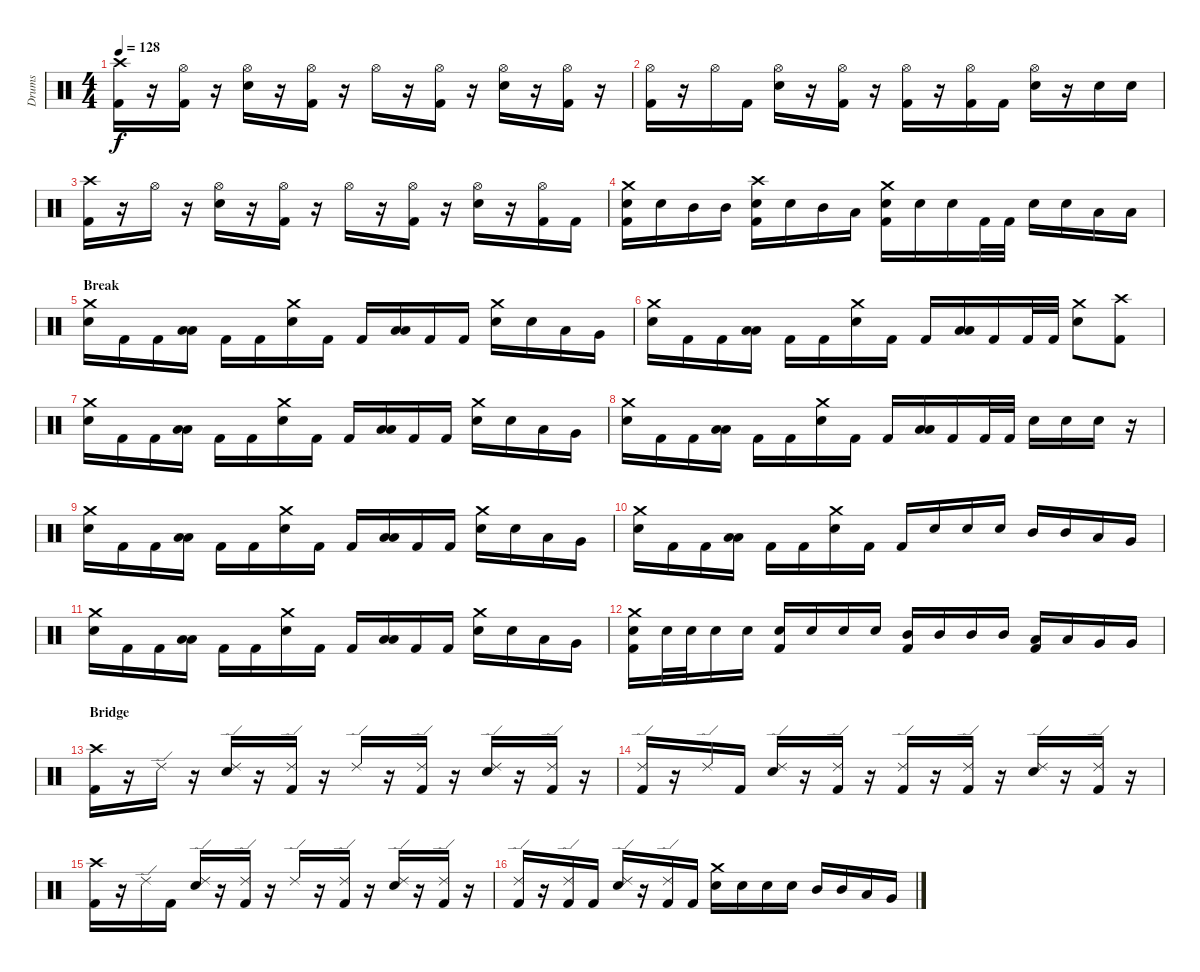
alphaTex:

\track ("Drums" "Drums") {instrument percussion}
\staff {score}
\articulation defaults
\ts (4 4)
\tempo 128
\clef neutral
\ks c
("Crash high (hit)" "Kick (hit) 2").16{dy f} r.16 ("Hi-Hat (open)" "Kick (hit) 2").16 r.16 ("Hi-Hat (open)" "Snare (hit) 2").16 r.16 ("Hi-Hat (open)" "Kick (hit) 2").16 r.16 "Hi-Hat (open)".16 r.16 ("Hi-Hat (open)" "Kick (hit) 2").16 r.16 ("Hi-Hat (open)" "Snare (hit) 2").16 r.16 ("Hi-Hat (open)" "Kick (hit) 2").16 r.16 |
("Hi-Hat (open)" "Kick (hit) 2").16 r.16 "Hi-Hat (open)".16 "Kick (hit) 2".16 ("Hi-Hat (open)" "Snare (hit) 2").16 r.16 ("Hi-Hat (open)" "Kick (hit) 2").16 r.16 ("Hi-Hat (open)" "Kick (hit) 2").16 r.16 ("Hi-Hat (open)" "Kick (hit) 2").16 "Kick (hit) 2".16 ("Hi-Hat (open)" "Snare (hit) 2").16 r.16 "Snare (hit) 2".16 "Snare (hit) 2".16 |
("Crash high (hit)" "Kick (hit) 2").16 r.16 "Hi-Hat (open)".16 r.16 ("Hi-Hat (open)" "Snare (hit) 2").16 r.16 ("Hi-Hat (open)" "Kick (hit) 2").16 r.16 "Hi-Hat (open)".16 r.16 ("Hi-Hat (open)" "Kick (hit) 2").16 r.16 ("Hi-Hat (open)" "Snare (hit) 2").16 r.16 ("Hi-Hat (open)" "Kick (hit) 2").16 "Kick (hit) 2".16 |
("Crash medium (hit)" "Snare (hit) 2" "Kick (hit) 2").16 "Snare (hit) 2".16 "Mid Tom (hit)".16 "Mid Tom (hit)".16 ("Crash high (hit)" "Snare (hit) 2" "Kick (hit) 2").16 "Snare (hit) 2".16 "Mid Tom (hit)".16 "Low Tom (hit)".16 ("Crash medium (hit)" "Snare (hit) 2" "Kick (hit) 2").16 "Snare (hit) 2".16 "Snare (hit) 2".16 "Kick (hit) 2".32 "Kick (hit) 2".32 "Snare (hit) 2".16 "Snare (hit) 2".16 "Low Tom (hit)".16 "Low Tom (hit)".16 |
\section ("" "Break")
("Crash medium (hit)" "Snare (hit) 2").16 "Kick (hit) 2".16 "Kick (hit) 2".16 ("Low Tom (hit)" "Low Tom (hit)").16{bd 240} "Kick (hit) 2".16 "Kick (hit) 2".16 ("Crash medium (hit)" "Snare (hit) 2").16 "Kick (hit) 2".16 "Kick (hit) 2".16 ("Low Tom (hit)" "Low Tom (hit)").16{bd 240} "Kick (hit) 2".16 "Kick (hit) 2".16 ("Crash medium (hit)" "Snare (hit) 2").16 "Snare (hit) 2".16 "Low Tom (hit)".16 "Very Low Tom (hit)".16 |
("Crash medium (hit)" "Snare (hit) 2").16 "Kick (hit) 2".16 "Kick (hit) 2".16 ("Low Tom (hit)" "Low Tom (hit)").16{bd 240} "Kick (hit) 2".16 "Kick (hit) 2".16 ("Crash medium (hit)" "Snare (hit) 2").16 "Kick (hit) 2".16 "Kick (hit) 2".16 ("Low Tom (hit)" "Low Tom (hit)").16{bd 240} "Kick (hit) 2".16 "Kick (hit) 2".32 "Kick (hit) 2".32 ("Crash medium (hit)" "Snare (hit) 2").8 ("Crash high (hit)" "Kick (hit) 2").8 |
("Crash medium (hit)" "Snare (hit) 2").16 "Kick (hit) 2".16 "Kick (hit) 2".16 ("Low Tom (hit)" "Low Tom (hit)").16{bd 240} "Kick (hit) 2".16 "Kick (hit) 2".16 ("Crash medium (hit)" "Snare (hit) 2").16 "Kick (hit) 2".16 "Kick (hit) 2".16 ("Low Tom (hit)" "Low Tom (hit)").16{bd 240} "Kick (hit) 2".16 "Kick (hit) 2".16 ("Crash medium (hit)" "Snare (hit) 2").16 "Snare (hit) 2".16 "Low Tom (hit)".16 "Very Low Tom (hit)".16 |
("Crash medium (hit)" "Snare (hit) 2").16 "Kick (hit) 2".16 "Kick (hit) 2".16 ("Low Tom (hit)" "Low Tom (hit)").16{bd 240} "Kick (hit) 2".16 "Kick (hit) 2".16 ("Crash medium (hit)" "Snare (hit) 2").16 "Kick (hit) 2".16 "Kick (hit) 2".16 ("Low Tom (hit)" "Low Tom (hit)").16{bd 240} "Kick (hit) 2".16 "Kick (hit) 2".32 "Kick (hit) 2".32 "Snare (hit) 2".16 "Snare (hit) 2".16 "Snare (hit) 2".16 r.16 |
("Crash medium (hit)" "Snare (hit) 2").16 "Kick (hit) 2".16 "Kick (hit) 2".16 ("Low Tom (hit)" "Low Tom (hit)").16{bd 240} "Kick (hit) 2".16 "Kick (hit) 2".16 ("Crash medium (hit)" "Snare (hit) 2").16 "Kick (hit) 2".16 "Kick (hit) 2".16 ("Low Tom (hit)" "Low Tom (hit)").16{bd 240} "Kick (hit) 2".16 "Kick (hit) 2".16 ("Crash medium (hit)" "Snare (hit) 2").16 "Snare (hit) 2".16 "Low Tom (hit)".16 "Very Low Tom (hit)".16 |
("Crash medium (hit)" "Snare (hit) 2").16 "Kick (hit) 2".16 "Kick (hit) 2".16 ("Low Tom (hit)" "Low Tom (hit)").16{bd 240} "Kick (hit) 2".16 "Kick (hit) 2".16 ("Crash medium (hit)" "Snare (hit) 2").16 "Kick (hit) 2".16 "Kick (hit) 2".16 "Snare (hit) 2".16 "Snare (hit) 2".16 "Snare (hit) 2".16 "Mid Tom (hit)".16 "Mid Tom (hit)".16 "Low Tom (hit)".16 "Very Low Tom (hit)".16 |
("Crash medium (hit)" "Snare (hit) 2").16 "Kick (hit) 2".16 "Kick (hit) 2".16 ("Low Tom (hit)" "Low Tom (hit)").16{bd 240} "Kick (hit) 2".16 "Kick (hit) 2".16 ("Crash medium (hit)" "Snare (hit) 2").16 "Kick (hit) 2".16 "Kick (hit) 2".16 ("Low Tom (hit)" "Low Tom (hit)").16{bd 240} "Kick (hit) 2".16 "Kick (hit) 2".16 ("Crash medium (hit)" "Snare (hit) 2").16 "Snare (hit) 2".16 "Low Tom (hit)".16 "Very Low Tom (hit)".16 |
("Crash medium (hit)" "Snare (hit) 2" "Kick (hit) 2").16 "Snare (hit) 2".32 "Snare (hit) 2".32 "Snare (hit) 2".16 "Snare (hit) 2".16 ("Snare (hit) 2" "Kick (hit) 2").16 "Snare (hit) 2".16 "Snare (hit) 2".16 "Snare (hit) 2".16 ("Mid Tom (hit)" "Kick (hit) 2").16 "Mid Tom (hit)".16 "Mid Tom (hit)".16 "Mid Tom (hit)".16 ("Low Tom (hit)" "Kick (hit) 2").16 "Low Tom (hit)".16 "Very Low Tom (hit)".16 "Very Low Tom (hit)".16 |
\section ("" "Bridge")
("Crash high (hit)" "Kick (hit) 2").16 r.16 "Ride (edge) 2".16 r.16 ("Ride (edge) 2" "Snare (hit) 2").16 r.16 ("Ride (edge) 2" "Kick (hit) 2").16 r.16 "Ride (edge) 2".16 r.16 ("Ride (edge) 2" "Kick (hit) 2").16 r.16 ("Ride (edge) 2" "Snare (hit) 2").16 r.16 ("Ride (edge) 2" "Kick (hit) 2").16 r.16 |
("Ride (edge) 2" "Kick (hit) 2").16 r.16 "Ride (edge) 2".16 "Kick (hit) 2".16 ("Ride (edge) 2" "Snare (hit) 2").16 r.16 ("Ride (edge) 2" "Kick (hit) 2").16 r.16 ("Ride (edge) 2" "Kick (hit) 2").16 r.16 ("Ride (edge) 2" "Kick (hit) 2").16 r.16 ("Ride (edge) 2" "Snare (hit) 2").16 r.16 ("Ride (edge) 2" "Kick (hit) 2").16 r.16 |
("Crash high (hit)" "Kick (hit) 2").16 r.16 "Ride (edge) 2".16 "Kick (hit) 2".16 ("Ride (edge) 2" "Snare (hit) 2").16 r.16 ("Ride (edge) 2" "Kick (hit) 2").16 r.16 "Ride (edge) 2".16 r.16 ("Ride (edge) 2" "Kick (hit) 2").16 r.16 ("Ride (edge) 2" "Snare (hit) 2").16 r.16 ("Ride (edge) 2" "Kick (hit) 2").16 r.16 |
("Ride (edge) 2" "Kick (hit) 2").16 r.16 ("Ride (edge) 2" "Kick (hit) 2").16 "Kick (hit) 2".16 ("Ride (edge) 2" "Snare (hit) 2").16 r.16 ("Ride (edge) 2" "Kick (hit) 2").16 "Kick (hit) 2".16 ("Crash medium (hit)" "Snare (hit) 2").16 "Snare (hit) 2".16 "Snare (hit) 2".16 "Snare (hit) 2".16 "Mid Tom (hit)".16 "Mid Tom (hit)".16 "Low Tom (hit)".16 "Very Low Tom (hit)".16
